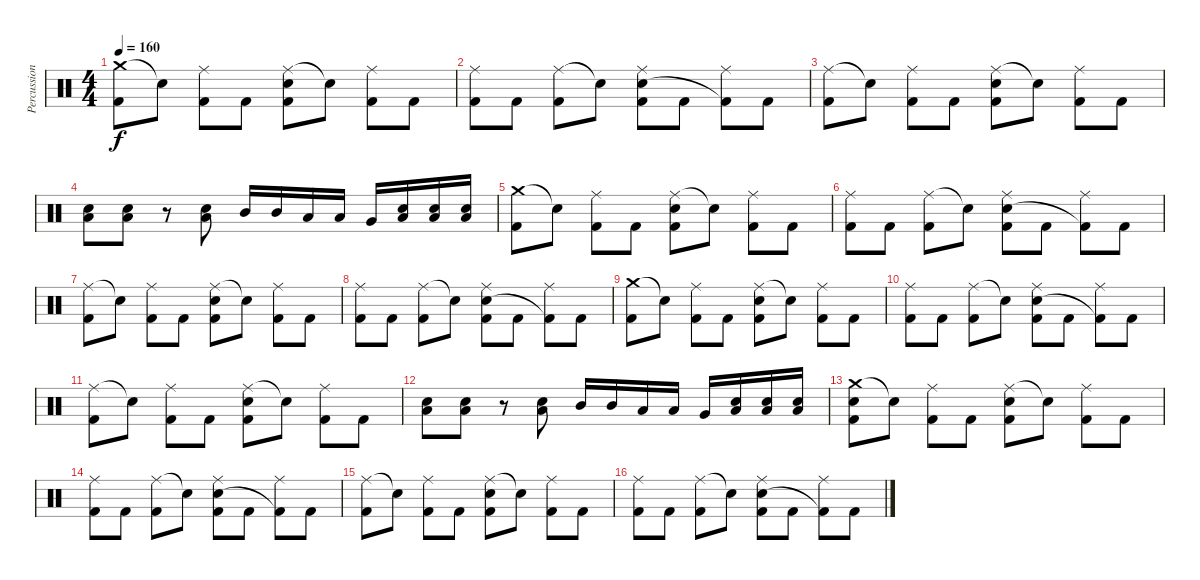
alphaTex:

\track ("Percussion" "Percussion") {instrument percussion}
\staff {score}
\articulation defaults
\ts (4 4)
\tempo 160
\clef neutral
\ks c
("Crash medium (hit)" "Kick (hit) 2").8{dy f} "Snare (hit)"{t}.8 ("Ride (middle)" "Kick (hit) 2").8 "Kick (hit) 2".8 ("Ride (middle)" "Snare (hit) 2" "Kick (hit) 2").8 "Snare (hit)"{t}.8 ("Ride (middle)" "Kick (hit) 2").8 "Kick (hit) 2".8 |
("Ride (middle)" "Kick (hit) 2").8 "Kick (hit) 2".8 ("Ride (middle)" "Kick (hit) 2").8 "Snare (hit)"{t}.8 ("Ride (middle)" "Snare (hit) 2" "Kick (hit) 2").8 "Kick (hit) 2".8 ("Ride (middle)" "Kick (hit) 2"{t}).8 "Kick (hit) 2".8 |
("Ride (middle)" "Kick (hit) 2").8 "Snare (hit)"{t}.8 ("Ride (middle)" "Kick (hit) 2").8 "Kick (hit) 2".8 ("Ride (middle)" "Snare (hit) 2" "Kick (hit) 2").8 "Snare (hit)"{t}.8 ("Ride (middle)" "Kick (hit) 2").8 "Kick (hit) 2".8 |
("Low Floor Tom (hit)" "Snare (hit) 2").8 ("Low Floor Tom (hit)" "Snare (hit) 2").8 r.8 ("Low Floor Tom (hit)" "Snare (hit) 2").8 "Mid Tom (hit)".16 "Mid Tom (hit)".16 "Low Tom (hit)".16 "Low Tom (hit)".16 "Very Low Tom (hit)".16 ("Low Floor Tom (hit)" "Snare (hit) 2").16 ("Low Floor Tom (hit)" "Snare (hit) 2").16 ("Low Floor Tom (hit)" "Snare (hit) 2").16 |
("Crash medium (hit)" "Kick (hit) 2").8 "Snare (hit)"{t}.8 ("Ride (middle)" "Kick (hit) 2").8 "Kick (hit) 2".8 ("Ride (middle)" "Snare (hit) 2" "Kick (hit) 2").8 "Snare (hit)"{t}.8 ("Ride (middle)" "Kick (hit) 2").8 "Kick (hit) 2".8 |
("Ride (middle)" "Kick (hit) 2").8 "Kick (hit) 2".8 ("Ride (middle)" "Kick (hit) 2").8 "Snare (hit)"{t}.8 ("Ride (middle)" "Snare (hit) 2" "Kick (hit) 2").8 "Kick (hit) 2".8 ("Ride (middle)" "Kick (hit) 2"{t}).8 "Kick (hit) 2".8 |
("Ride (middle)" "Kick (hit) 2").8 "Snare (hit)"{t}.8 ("Ride (middle)" "Kick (hit) 2").8 "Kick (hit) 2".8 ("Ride (middle)" "Snare (hit) 2" "Kick (hit) 2").8 "Snare (hit)"{t}.8 ("Ride (middle)" "Kick (hit) 2").8 "Kick (hit) 2".8 |
("Ride (middle)" "Kick (hit) 2").8 "Kick (hit) 2".8 ("Ride (middle)" "Kick (hit) 2").8 "Snare (hit)"{t}.8 ("Ride (middle)" "Snare (hit) 2" "Kick (hit) 2").8 "Kick (hit) 2".8 ("Ride (middle)" "Kick (hit) 2"{t}).8 "Kick (hit) 2".8 |
("Crash medium (hit)" "Kick (hit) 2").8 "Snare (hit)"{t}.8 ("Ride (middle)" "Kick (hit) 2").8 "Kick (hit) 2".8 ("Ride (middle)" "Snare (hit) 2" "Kick (hit) 2").8 "Snare (hit)"{t}.8 ("Ride (middle)" "Kick (hit) 2").8 "Kick (hit) 2".8 |
("Ride (middle)" "Kick (hit) 2").8 "Kick (hit) 2".8 ("Ride (middle)" "Kick (hit) 2").8 "Snare (hit)"{t}.8 ("Ride (middle)" "Snare (hit) 2" "Kick (hit) 2").8 "Kick (hit) 2".8 ("Ride (middle)" "Kick (hit) 2"{t}).8 "Kick (hit) 2".8 |
("Ride (middle)" "Kick (hit) 2").8 "Snare (hit)"{t}.8 ("Ride (middle)" "Kick (hit) 2").8 "Kick (hit) 2".8 ("Ride (middle)" "Snare (hit) 2" "Kick (hit) 2").8 "Snare (hit)"{t}.8 ("Ride (middle)" "Kick (hit) 2").8 "Kick (hit) 2".8 |
("Low Floor Tom (hit)" "Snare (hit) 2").8 ("Low Floor Tom (hit)" "Snare (hit) 2").8 r.8 ("Low Floor Tom (hit)" "Snare (hit) 2").8 "Mid Tom (hit)".16 "Mid Tom (hit)".16 "Low Tom (hit)".16 "Low Tom (hit)".16 "Very Low Tom (hit)".16 ("Low Floor Tom (hit)" "Snare (hit) 2").16 ("Low Floor Tom (hit)" "Snare (hit) 2").16 ("Low Floor Tom (hit)" "Snare (hit) 2").16 |
("Crash medium (hit)" "Snare (hit) 2" "Kick (hit) 2").8 "Snare (hit)"{t}.8 ("Ride (middle)" "Kick (hit) 2").8 "Kick (hit) 2".8 ("Ride (middle)" "Snare (hit) 2" "Kick (hit) 2").8 "Snare (hit)"{t}.8 ("Ride (middle)" "Kick (hit) 2").8 "Kick (hit) 2".8 |
("Ride (middle)" "Kick (hit) 2").8 "Kick (hit) 2".8 ("Ride (middle)" "Kick (hit) 2").8 "Snare (hit)"{t}.8 ("Ride (middle)" "Snare (hit) 2" "Kick (hit) 2").8 "Kick (hit) 2".8 ("Ride (middle)" "Kick (hit) 2"{t}).8 "Kick (hit) 2".8 |
("Ride (middle)" "Kick (hit) 2").8 "Snare (hit)"{t}.8 ("Ride (middle)" "Kick (hit) 2").8 "Kick (hit) 2".8 ("Ride (middle)" "Snare (hit) 2" "Kick (hit) 2").8 "Snare (hit)"{t}.8 ("Ride (middle)" "Kick (hit) 2").8 "Kick (hit) 2".8 |
("Ride (middle)" "Kick (hit) 2").8 "Kick (hit) 2".8 ("Ride (middle)" "Kick (hit) 2").8 "Snare (hit)"{t}.8 ("Ride (middle)" "Snare (hit) 2" "Kick (hit) 2").8 "Kick (hit) 2".8 ("Ride (middle)" "Kick (hit) 2"{t}).8 "Kick (hit) 2".8
